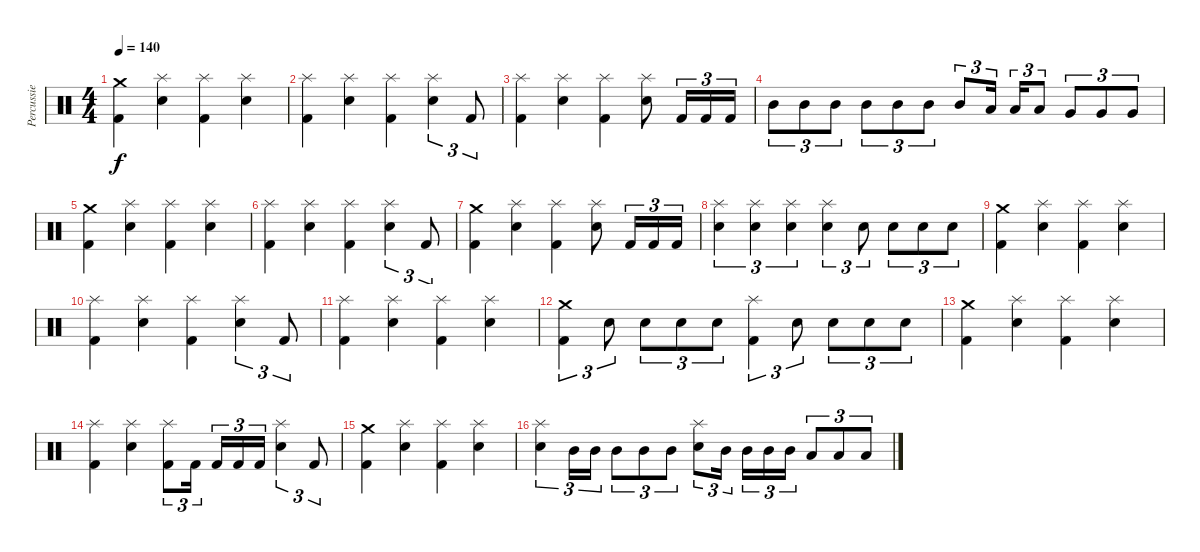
\track ("Percussie" "Percussie") {instrument percussion}
\staff {score}
\articulation defaults
\ts (4 4)
\tempo 140
\clef neutral
\ks c
("Crash medium (hit)" "Kick (hit) 2").4{dy f} ("Splash (hit)" "Electric Snare (hit)").4 ("Splash (hit)" "Kick (hit) 2").4 ("Splash (hit)" "Electric Snare (hit)").4 |
("Splash (hit)" "Kick (hit) 2").4 ("Splash (hit)" "Electric Snare (hit)").4 ("Splash (hit)" "Kick (hit) 2").4 ("Splash (hit)" "Electric Snare (hit)").4{tu (3 2)} "Kick (hit) 2".8{tu (3 2)} |
("Splash (hit)" "Kick (hit) 2").4 ("Splash (hit)" "Electric Snare (hit)").4 ("Splash (hit)" "Kick (hit) 2").4 ("Splash (hit)" "Electric Snare (hit)").8 "Kick (hit) 2".16{tu (3 2)} "Kick (hit) 2".16{tu (3 2)} "Kick (hit) 2".16{tu (3 2)} |
"Mid Tom (hit)".8{tu (3 2)} "Mid Tom (hit)".8{tu (3 2)} "Mid Tom (hit)".8{tu (3 2)} "Mid Tom (hit)".8{tu (3 2)} "Mid Tom (hit)".8{tu (3 2)} "Mid Tom (hit)".8{tu (3 2)} "Mid Tom (hit)".8{tu (3 2)} "Low Tom (hit)".16{tu (3 2)} "Low Tom (hit)".16{tu (3 2)} "Low Tom (hit)".8{tu (3 2)} "Very Low Tom (hit)".8{tu (3 2)} "Very Low Tom (hit)".8{tu (3 2)} "Very Low Tom (hit)".8{tu (3 2)} |
("Crash medium (hit)" "Kick (hit) 2").4 ("Splash (hit)" "Electric Snare (hit)").4 ("Splash (hit)" "Kick (hit) 2").4 ("Splash (hit)" "Electric Snare (hit)").4 |
("Splash (hit)" "Kick (hit) 2").4 ("Splash (hit)" "Electric Snare (hit)").4 ("Splash (hit)" "Kick (hit) 2").4 ("Splash (hit)" "Electric Snare (hit)").4{tu (3 2)} "Kick (hit) 2".8{tu (3 2)} |
("Crash medium (hit)" "Kick (hit) 2").4 ("Splash (hit)" "Electric Snare (hit)").4 ("Splash (hit)" "Kick (hit) 2").4 ("Splash (hit)" "Electric Snare (hit)").8 "Kick (hit) 2".16{tu (3 2)} "Kick (hit) 2".16{tu (3 2)} "Kick (hit) 2".16{tu (3 2)} |
("Splash (hit)" "Electric Snare (hit)").4{tu (3 2)} ("Splash (hit)" "Electric Snare (hit)").4{tu (3 2)} ("Splash (hit)" "Electric Snare (hit)").4{tu (3 2)} ("Splash (hit)" "Electric Snare (hit)").4{tu (3 2)} "Electric Snare (hit)".8{tu (3 2)} "Electric Snare (hit)".8{tu (3 2)} "Electric Snare (hit)".8{tu (3 2)} "Electric Snare (hit)".8{tu (3 2)} |
("Crash medium (hit)" "Kick (hit) 2").4 ("Splash (hit)" "Electric Snare (hit)").4 ("Splash (hit)" "Kick (hit) 2").4 ("Splash (hit)" "Electric Snare (hit)").4 |
("Splash (hit)" "Kick (hit) 2").4 ("Splash (hit)" "Electric Snare (hit)").4 ("Splash (hit)" "Kick (hit) 2").4 ("Splash (hit)" "Electric Snare (hit)").4{tu (3 2)} "Kick (hit) 2".8{tu (3 2)} |
("Splash (hit)" "Kick (hit) 2").4 ("Splash (hit)" "Electric Snare (hit)").4 ("Splash (hit)" "Kick (hit) 2").4 ("Splash (hit)" "Electric Snare (hit)").4 |
("Crash medium (hit)" "Kick (hit) 2").4{tu (3 2)} "Electric Snare (hit)".8{tu (3 2)} "Electric Snare (hit)".8{tu (3 2)} "Electric Snare (hit)".8{tu (3 2)} "Electric Snare (hit)".8{tu (3 2)} ("Splash (hit)" "Kick (hit) 2").4{tu (3 2)} "Electric Snare (hit)".8{tu (3 2)} "Electric Snare (hit)".8{tu (3 2)} "Electric Snare (hit)".8{tu (3 2)} "Electric Snare (hit)".8{tu (3 2)} |
("Crash medium (hit)" "Kick (hit) 2").4 ("Splash (hit)" "Electric Snare (hit)").4 ("Splash (hit)" "Kick (hit) 2").4 ("Splash (hit)" "Electric Snare (hit)").4 |
("Splash (hit)" "Kick (hit) 2").4 ("Splash (hit)" "Electric Snare (hit)").4 ("Splash (hit)" "Kick (hit) 2").8{tu (3 2)} "Kick (hit) 2".16{tu (3 2)} "Kick (hit) 2".16{tu (3 2)} "Kick (hit) 2".16{tu (3 2)} "Kick (hit) 2".16{tu (3 2)} ("Splash (hit)" "Electric Snare (hit)").4{tu (3 2)} "Kick (hit) 2".8{tu (3 2)} |
("Crash medium (hit)" "Kick (hit) 2").4 ("Splash (hit)" "Electric Snare (hit)").4 ("Splash (hit)" "Kick (hit) 2").4 ("Splash (hit)" "Electric Snare (hit)").4 |
("Splash (hit)" "Electric Snare (hit)").4{tu (3 2)} "Mid Tom (hit)".16{tu (3 2)} "Mid Tom (hit)".16{tu (3 2)} "Mid Tom (hit)".8{tu (3 2)} "Mid Tom (hit)".8{tu (3 2)} "Mid Tom (hit)".8{tu (3 2)} ("Splash (hit)" "Electric Snare (hit)").8{tu (3 2)} "Mid Tom (hit)".16{tu (3 2)} "Mid Tom (hit)".16{tu (3 2)} "Mid Tom (hit)".16{tu (3 2)} "Mid Tom (hit)".16{tu (3 2)} "Low Tom (hit)".8{tu (3 2)} "Low Tom (hit)".8{tu (3 2)} "Low Tom (hit)".8{tu (3 2)}
